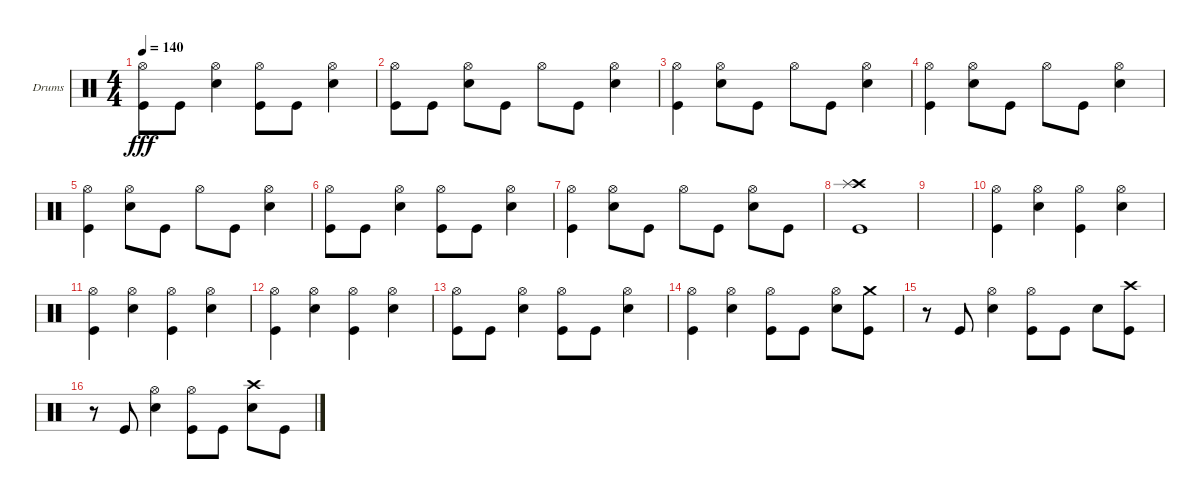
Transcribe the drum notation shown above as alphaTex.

\bracketExtendMode groupsimilarinstruments
\firstSystemTrackNameOrientation horizontal
\otherSystemsTrackNameOrientation horizontal
\track ("Drumkit" "Drums") {instrument percussion}
\staff {score}
\articulation defaults
\ts (4 4)
\tempo 140
\clef neutral
\ks c
("Kick (hit)" "Hi-Hat (open)").8{dy fff} "Kick (hit)".8 ("Snare (hit) 2" "Hi-Hat (open)").4 ("Kick (hit)" "Hi-Hat (open)").8 "Kick (hit)".8 ("Snare (hit) 2" "Hi-Hat (open)").4 |
("Kick (hit)" "Hi-Hat (open)").8 "Kick (hit)".8 ("Snare (hit) 2" "Hi-Hat (open)").8 "Kick (hit)".8 "Hi-Hat (open)".8 "Kick (hit)".8 ("Snare (hit) 2" "Hi-Hat (open)").4 |
("Kick (hit)" "Hi-Hat (open)").4 ("Hi-Hat (open)" "Snare (hit) 2").8 "Kick (hit)".8 "Hi-Hat (open)".8 "Kick (hit)".8 ("Snare (hit) 2" "Hi-Hat (open)").4 |
("Kick (hit)" "Hi-Hat (open)").4 ("Hi-Hat (open)" "Snare (hit) 2").8 "Kick (hit)".8 "Hi-Hat (open)".8 "Kick (hit)".8 ("Snare (hit) 2" "Hi-Hat (open)").4 |
("Kick (hit)" "Hi-Hat (open)").4 ("Hi-Hat (open)" "Snare (hit) 2").8 "Kick (hit)".8 "Hi-Hat (open)".8 "Kick (hit)".8 ("Snare (hit) 2" "Hi-Hat (open)").4 |
("Kick (hit)" "Hi-Hat (open)").8 "Kick (hit)".8 ("Snare (hit) 2" "Hi-Hat (open)").4 ("Kick (hit)" "Hi-Hat (open)").8 "Kick (hit)".8 ("Snare (hit) 2" "Hi-Hat (open)").4 |
("Kick (hit)" "Hi-Hat (open)").4 ("Hi-Hat (open)" "Snare (hit) 2").8 "Kick (hit)".8 "Hi-Hat (open)".8 "Kick (hit)".8 ("Snare (hit) 2" "Hi-Hat (open)").8 "Kick (hit)".8 |
("Kick (hit)" "Crash high (hit)" "Splash (hit)").1 |
|
("Kick (hit)" "Hi-Hat (open)").4 ("Snare (hit) 2" "Hi-Hat (open)").4 ("Kick (hit)" "Hi-Hat (open)").4 ("Snare (hit) 2" "Hi-Hat (open)").4 |
("Kick (hit)" "Hi-Hat (open)").4 ("Snare (hit) 2" "Hi-Hat (open)").4 ("Kick (hit)" "Hi-Hat (open)").4 ("Snare (hit) 2" "Hi-Hat (open)").4 |
("Kick (hit)" "Hi-Hat (open)").4 ("Snare (hit) 2" "Hi-Hat (open)").4 ("Kick (hit)" "Hi-Hat (open)").4 ("Snare (hit) 2" "Hi-Hat (open)").4 |
("Kick (hit)" "Hi-Hat (open)").8 "Kick (hit)".8 ("Snare (hit) 2" "Hi-Hat (open)").4 ("Kick (hit)" "Hi-Hat (open)").8 "Kick (hit)".8 ("Snare (hit) 2" "Hi-Hat (open)").4 |
("Kick (hit)" "Hi-Hat (open)").4 ("Snare (hit) 2" "Hi-Hat (open)").4 ("Kick (hit)" "Hi-Hat (open)").8 "Kick (hit)".8 ("Snare (hit) 2" "Hi-Hat (open)").8 ("Kick (hit)" "Crash medium (hit)").8 |
r.8 "Kick (hit)".8 ("Snare (hit) 2" "Hi-Hat (open)").4 ("Kick (hit)" "Hi-Hat (open)").8 "Kick (hit)".8 "Snare (hit) 2".8 ("Kick (hit)" "Crash high (hit)").8 |
r.8 "Kick (hit)".8 ("Snare (hit) 2" "Hi-Hat (open)").4 ("Kick (hit)" "Hi-Hat (open)").8 "Kick (hit)".8 ("Snare (hit) 2" "Crash high (hit)").8 "Kick (hit)".8
